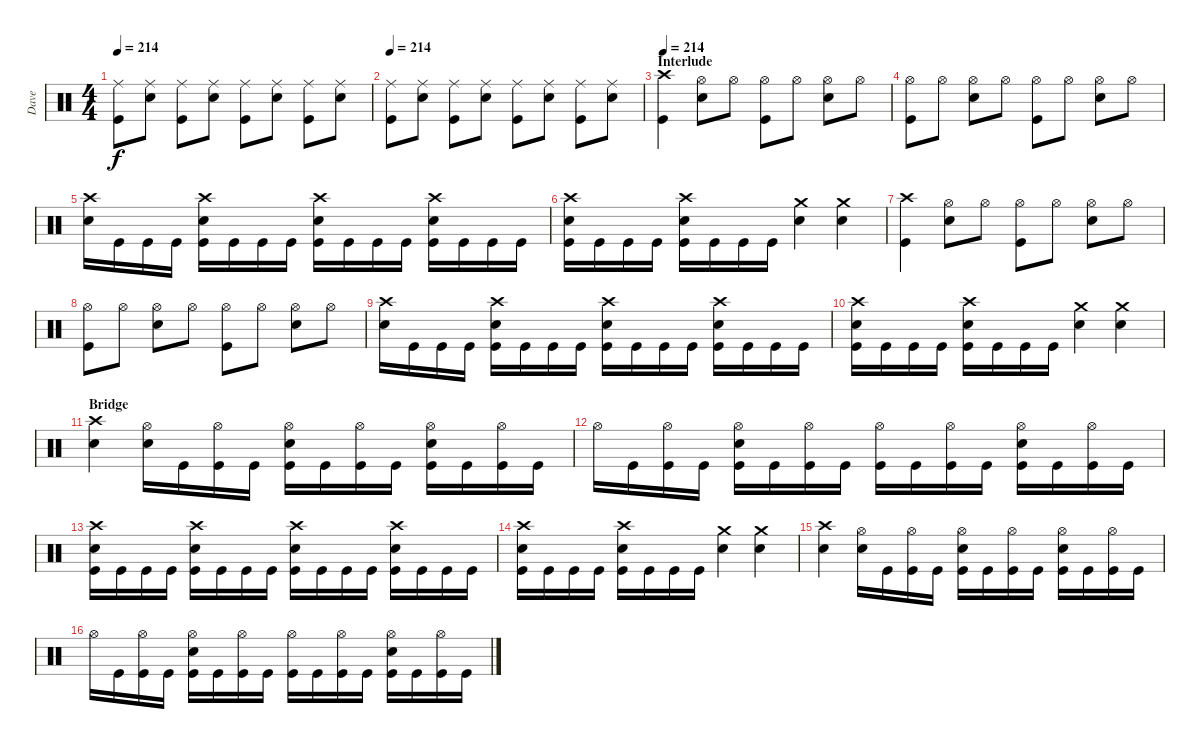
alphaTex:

\track ("Dave" "Dave") {instrument percussion}
\staff {score}
\articulation defaults
\ts (4 4)
\tempo 214
\clef neutral
\ks c
("Ride (middle)" "Kick (hit)").8{dy f} ("Ride (middle)" "Snare (hit) 2").8 ("Ride (middle)" "Kick (hit)").8 ("Ride (middle)" "Snare (hit) 2").8 ("Ride (middle)" "Kick (hit)").8 ("Ride (middle)" "Snare (hit) 2").8 ("Ride (middle)" "Kick (hit)").8 ("Ride (middle)" "Snare (hit) 2").8 |
\tempo 214
("Ride (middle)" "Kick (hit)").8 ("Ride (middle)" "Snare (hit) 2").8 ("Ride (middle)" "Kick (hit)").8 ("Ride (middle)" "Snare (hit) 2").8 ("Ride (middle)" "Kick (hit)").8 ("Ride (middle)" "Snare (hit) 2").8 ("Ride (middle)" "Kick (hit)").8 ("Ride (middle)" "Snare (hit) 2").8 |
\section ("" "Interlude")
\tempo 214
("Crash high (hit)" "Kick (hit)").4 ("Hi-Hat (open)" "Snare (hit) 2").8 "Hi-Hat (open)".8 ("Hi-Hat (open)" "Kick (hit)").8 "Hi-Hat (open)".8 ("Hi-Hat (open)" "Snare (hit) 2").8 "Hi-Hat (open)".8 |
("Hi-Hat (open)" "Kick (hit)").8 "Hi-Hat (open)".8 ("Hi-Hat (open)" "Snare (hit) 2").8 "Hi-Hat (open)".8 ("Hi-Hat (open)" "Kick (hit)").8 "Hi-Hat (open)".8 ("Hi-Hat (open)" "Snare (hit) 2").8 "Hi-Hat (open)".8 |
("Crash high (hit)" "Snare (hit) 2").16 "Kick (hit)".16 "Kick (hit)".16 "Kick (hit)".16 ("Crash high (hit)" "Snare (hit) 2" "Kick (hit)").16 "Kick (hit)".16 "Kick (hit)".16 "Kick (hit)".16 ("Crash high (hit)" "Snare (hit) 2" "Kick (hit)").16 "Kick (hit)".16 "Kick (hit)".16 "Kick (hit)".16 ("Crash high (hit)" "Snare (hit) 2" "Kick (hit)").16 "Kick (hit)".16 "Kick (hit)".16 "Kick (hit)".16 |
("Crash high (hit)" "Snare (hit) 2" "Kick (hit)").16 "Kick (hit)".16 "Kick (hit)".16 "Kick (hit)".16 ("Crash high (hit)" "Snare (hit) 2" "Kick (hit)").16 "Kick (hit)".16 "Kick (hit)".16 "Kick (hit)".16 ("Crash medium (hit)" "Snare (hit) 2").4 ("Crash medium (hit)" "Snare (hit) 2").4 |
("Crash high (hit)" "Kick (hit)").4 ("Hi-Hat (open)" "Snare (hit) 2").8 "Hi-Hat (open)".8 ("Hi-Hat (open)" "Kick (hit)").8 "Hi-Hat (open)".8 ("Hi-Hat (open)" "Snare (hit) 2").8 "Hi-Hat (open)".8 |
("Hi-Hat (open)" "Kick (hit)").8 "Hi-Hat (open)".8 ("Hi-Hat (open)" "Snare (hit) 2").8 "Hi-Hat (open)".8 ("Hi-Hat (open)" "Kick (hit)").8 "Hi-Hat (open)".8 ("Hi-Hat (open)" "Snare (hit) 2").8 "Hi-Hat (open)".8 |
("Crash high (hit)" "Snare (hit) 2").16 "Kick (hit)".16 "Kick (hit)".16 "Kick (hit)".16 ("Crash high (hit)" "Snare (hit) 2" "Kick (hit)").16 "Kick (hit)".16 "Kick (hit)".16 "Kick (hit)".16 ("Crash high (hit)" "Snare (hit) 2" "Kick (hit)").16 "Kick (hit)".16 "Kick (hit)".16 "Kick (hit)".16 ("Crash high (hit)" "Snare (hit) 2" "Kick (hit)").16 "Kick (hit)".16 "Kick (hit)".16 "Kick (hit)".16 |
("Crash high (hit)" "Snare (hit) 2" "Kick (hit)").16 "Kick (hit)".16 "Kick (hit)".16 "Kick (hit)".16 ("Crash high (hit)" "Snare (hit) 2" "Kick (hit)").16 "Kick (hit)".16 "Kick (hit)".16 "Kick (hit)".16 ("Crash medium (hit)" "Snare (hit) 2").4 ("Crash medium (hit)" "Snare (hit) 2").4 |
\section ("" "Bridge")
("Crash high (hit)" "Snare (hit) 2").4 ("Hi-Hat (open)" "Snare (hit) 2").16 "Kick (hit)".16 ("Hi-Hat (open)" "Kick (hit)").16 "Kick (hit)".16 ("Hi-Hat (open)" "Snare (hit) 2" "Kick (hit)").16 "Kick (hit)".16 ("Hi-Hat (open)" "Kick (hit)").16 "Kick (hit)".16 ("Hi-Hat (open)" "Snare (hit) 2" "Kick (hit)").16 "Kick (hit)".16 ("Hi-Hat (open)" "Kick (hit)").16 "Kick (hit)".16 |
"Hi-Hat (open)".16 "Kick (hit)".16 ("Hi-Hat (open)" "Kick (hit)").16 "Kick (hit)".16 ("Hi-Hat (open)" "Snare (hit) 2" "Kick (hit)").16 "Kick (hit)".16 ("Hi-Hat (open)" "Kick (hit)").16 "Kick (hit)".16 ("Hi-Hat (open)" "Kick (hit)").16 "Kick (hit)".16 ("Hi-Hat (open)" "Kick (hit)").16 "Kick (hit)".16 ("Hi-Hat (open)" "Snare (hit) 2" "Kick (hit)").16 "Kick (hit)".16 ("Hi-Hat (open)" "Kick (hit)").16 "Kick (hit)".16 |
("Crash high (hit)" "Snare (hit) 2" "Kick (hit)").16 "Kick (hit)".16 "Kick (hit)".16 "Kick (hit)".16 ("Crash high (hit)" "Snare (hit) 2" "Kick (hit)").16 "Kick (hit)".16 "Kick (hit)".16 "Kick (hit)".16 ("Crash high (hit)" "Snare (hit) 2" "Kick (hit)").16 "Kick (hit)".16 "Kick (hit)".16 "Kick (hit)".16 ("Crash high (hit)" "Snare (hit) 2" "Kick (hit)").16 "Kick (hit)".16 "Kick (hit)".16 "Kick (hit)".16 |
("Crash high (hit)" "Snare (hit) 2" "Kick (hit)").16 "Kick (hit)".16 "Kick (hit)".16 "Kick (hit)".16 ("Crash high (hit)" "Snare (hit) 2" "Kick (hit)").16 "Kick (hit)".16 "Kick (hit)".16 "Kick (hit)".16 ("Crash medium (hit)" "Snare (hit) 2").4 ("Crash medium (hit)" "Snare (hit) 2").4 |
("Crash high (hit)" "Snare (hit) 2").4 ("Hi-Hat (open)" "Snare (hit) 2").16 "Kick (hit)".16 ("Hi-Hat (open)" "Kick (hit)").16 "Kick (hit)".16 ("Hi-Hat (open)" "Snare (hit) 2" "Kick (hit)").16 "Kick (hit)".16 ("Hi-Hat (open)" "Kick (hit)").16 "Kick (hit)".16 ("Hi-Hat (open)" "Snare (hit) 2" "Kick (hit)").16 "Kick (hit)".16 ("Hi-Hat (open)" "Kick (hit)").16 "Kick (hit)".16 |
"Hi-Hat (open)".16 "Kick (hit)".16 ("Hi-Hat (open)" "Kick (hit)").16 "Kick (hit)".16 ("Hi-Hat (open)" "Snare (hit) 2" "Kick (hit)").16 "Kick (hit)".16 ("Hi-Hat (open)" "Kick (hit)").16 "Kick (hit)".16 ("Hi-Hat (open)" "Kick (hit)").16 "Kick (hit)".16 ("Hi-Hat (open)" "Kick (hit)").16 "Kick (hit)".16 ("Hi-Hat (open)" "Snare (hit) 2" "Kick (hit)").16 "Kick (hit)".16 ("Hi-Hat (open)" "Kick (hit)").16 "Kick (hit)".16
